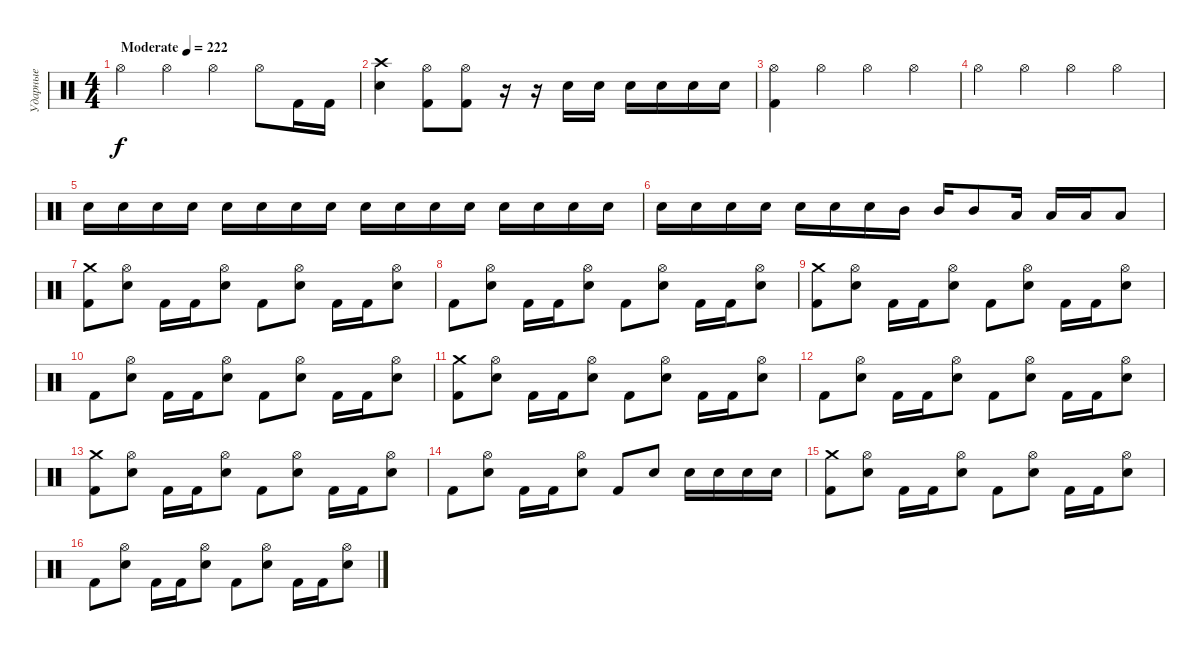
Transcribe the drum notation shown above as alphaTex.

\track ("Ударные" "Ударные") {instrument percussion}
\staff {score}
\articulation defaults
\ts (4 4)
\tempo (222 "Moderate")
\clef neutral
\ks c "Hi-Hat (open)".4{dy f} "Hi-Hat (open)".4 "Hi-Hat (open)".4 "Hi-Hat (open)".8 "Kick (hit) 2".16 "Kick (hit) 2".16
|
("Crash high (hit)" "Electric Snare (hit)").4 ("Hi-Hat (open)" "Kick (hit) 2").8 ("Hi-Hat (open)" "Kick (hit) 2").8 r.16 r.16 "Electric Snare (hit)".16 "Electric Snare (hit)".16 "Electric Snare (hit)".16 "Electric Snare (hit)".16 "Electric Snare (hit)".16 "Electric Snare (hit)".16 |
("Hi-Hat (open)" "Kick (hit) 2").4 "Hi-Hat (open)".4 "Hi-Hat (open)".4 "Hi-Hat (open)".4 |
"Hi-Hat (open)".4 "Hi-Hat (open)".4 "Hi-Hat (open)".4 "Hi-Hat (open)".4 |
"Electric Snare (hit)".16 "Electric Snare (hit)".16 "Electric Snare (hit)".16 "Electric Snare (hit)".16 "Electric Snare (hit)".16 "Electric Snare (hit)".16 "Electric Snare (hit)".16 "Electric Snare (hit)".16 "Electric Snare (hit)".16 "Electric Snare (hit)".16 "Electric Snare (hit)".16 "Electric Snare (hit)".16 "Electric Snare (hit)".16 "Electric Snare (hit)".16 "Electric Snare (hit)".16 "Electric Snare (hit)".16 |
"Electric Snare (hit)".16 "Electric Snare (hit)".16 "Electric Snare (hit)".16 "Electric Snare (hit)".16 "Electric Snare (hit)".16 "Electric Snare (hit)".16 "Electric Snare (hit)".16 "Mid Tom (hit)".16 "Mid Tom (hit)".16 "Mid Tom (hit)".8 "Low Tom (hit)".16 "Low Tom (hit)".16 "Low Tom (hit)".16 "Low Tom (hit)".8 |
("Kick (hit) 2" "Crash medium (hit)").8 ("Electric Snare (hit)" "Hi-Hat (open)").8 "Kick (hit) 2".16 "Kick (hit) 2".16 ("Electric Snare (hit)" "Hi-Hat (open)").8 "Kick (hit) 2".8 ("Electric Snare (hit)" "Hi-Hat (open)").8 "Kick (hit) 2".16 "Kick (hit) 2".16 ("Electric Snare (hit)" "Hi-Hat (open)").8 |
"Kick (hit) 2".8 ("Electric Snare (hit)" "Hi-Hat (open)").8 "Kick (hit) 2".16 "Kick (hit) 2".16 ("Electric Snare (hit)" "Hi-Hat (open)").8 "Kick (hit) 2".8 ("Electric Snare (hit)" "Hi-Hat (open)").8 "Kick (hit) 2".16 "Kick (hit) 2".16 ("Electric Snare (hit)" "Hi-Hat (open)").8 |
("Kick (hit) 2" "Crash medium (hit)").8 ("Electric Snare (hit)" "Hi-Hat (open)").8 "Kick (hit) 2".16 "Kick (hit) 2".16 ("Electric Snare (hit)" "Hi-Hat (open)").8 "Kick (hit) 2".8 ("Electric Snare (hit)" "Hi-Hat (open)").8 "Kick (hit) 2".16 "Kick (hit) 2".16 ("Electric Snare (hit)" "Hi-Hat (open)").8 |
"Kick (hit) 2".8 ("Electric Snare (hit)" "Hi-Hat (open)").8 "Kick (hit) 2".16 "Kick (hit) 2".16 ("Electric Snare (hit)" "Hi-Hat (open)").8 "Kick (hit) 2".8 ("Electric Snare (hit)" "Hi-Hat (open)").8 "Kick (hit) 2".16 "Kick (hit) 2".16 ("Electric Snare (hit)" "Hi-Hat (open)").8 |
("Kick (hit) 2" "Crash medium (hit)").8 ("Electric Snare (hit)" "Hi-Hat (open)").8 "Kick (hit) 2".16 "Kick (hit) 2".16 ("Electric Snare (hit)" "Hi-Hat (open)").8 "Kick (hit) 2".8 ("Electric Snare (hit)" "Hi-Hat (open)").8 "Kick (hit) 2".16 "Kick (hit) 2".16 ("Electric Snare (hit)" "Hi-Hat (open)").8 |
"Kick (hit) 2".8 ("Electric Snare (hit)" "Hi-Hat (open)").8 "Kick (hit) 2".16 "Kick (hit) 2".16 ("Electric Snare (hit)" "Hi-Hat (open)").8 "Kick (hit) 2".8 ("Electric Snare (hit)" "Hi-Hat (open)").8 "Kick (hit) 2".16 "Kick (hit) 2".16 ("Electric Snare (hit)" "Hi-Hat (open)").8 |
("Kick (hit) 2" "Crash medium (hit)").8 ("Electric Snare (hit)" "Hi-Hat (open)").8 "Kick (hit) 2".16 "Kick (hit) 2".16 ("Electric Snare (hit)" "Hi-Hat (open)").8 "Kick (hit) 2".8 ("Electric Snare (hit)" "Hi-Hat (open)").8 "Kick (hit) 2".16 "Kick (hit) 2".16 ("Electric Snare (hit)" "Hi-Hat (open)").8 |
"Kick (hit) 2".8 ("Electric Snare (hit)" "Hi-Hat (open)").8 "Kick (hit) 2".16 "Kick (hit) 2".16 ("Electric Snare (hit)" "Hi-Hat (open)").8 "Kick (hit) 2".8 "Electric Snare (hit)".8 "Electric Snare (hit)".16 "Electric Snare (hit)".16 "Electric Snare (hit)".16 "Electric Snare (hit)".16 |
("Kick (hit) 2" "Crash medium (hit)").8 ("Electric Snare (hit)" "Hi-Hat (open)").8 "Kick (hit) 2".16 "Kick (hit) 2".16 ("Electric Snare (hit)" "Hi-Hat (open)").8 "Kick (hit) 2".8 ("Electric Snare (hit)" "Hi-Hat (open)").8 "Kick (hit) 2".16 "Kick (hit) 2".16 ("Electric Snare (hit)" "Hi-Hat (open)").8 |
"Kick (hit) 2".8 ("Electric Snare (hit)" "Hi-Hat (open)").8 "Kick (hit) 2".16 "Kick (hit) 2".16 ("Electric Snare (hit)" "Hi-Hat (open)").8 "Kick (hit) 2".8 ("Electric Snare (hit)" "Hi-Hat (open)").8 "Kick (hit) 2".16 "Kick (hit) 2".16 ("Electric Snare (hit)" "Hi-Hat (open)").8
